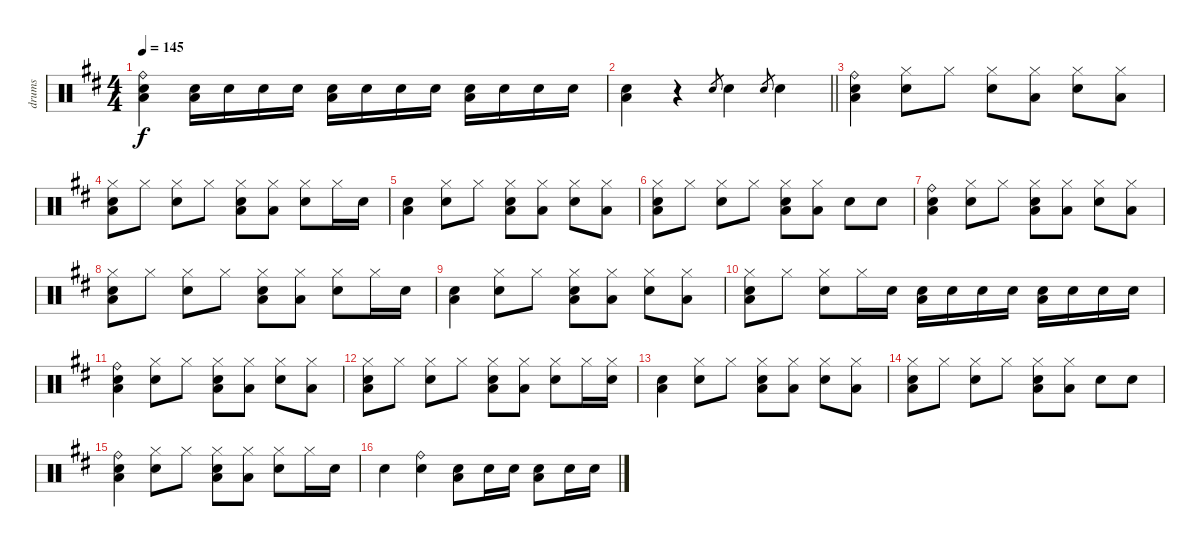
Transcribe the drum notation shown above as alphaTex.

\track ("drums" "drums") {instrument percussion}
\staff {score}
\articulation defaults
\ts (4 4)
\tempo 145
\clef neutral
\ks d
("Ride (bell)" "Electric Snare (hit)" "Low Floor Tom (hit)").4{dy f} ("Electric Snare (hit)" "Low Floor Tom (hit)").16 "Electric Snare (hit)".16 "Electric Snare (hit)".16 "Electric Snare (hit)".16 ("Electric Snare (hit)" "Low Floor Tom (hit)").16 "Electric Snare (hit)".16 "Electric Snare (hit)".16 "Electric Snare (hit)".16 ("Electric Snare (hit)" "Low Floor Tom (hit)").16 "Electric Snare (hit)".16 "Electric Snare (hit)".16 "Electric Snare (hit)".16 |
\barLineRight lightlight
("Electric Snare (hit)" "Low Floor Tom (hit)").4 r.4 "Electric Snare (hit)".8{gr} "Electric Snare (hit)".4 "Electric Snare (hit)".8{gr} "Electric Snare (hit)".4 |
("Ride (bell)" "Electric Snare (hit)" "Low Floor Tom (hit)").4 ("Hi-Hat (closed)" "Electric Snare (hit)").8 "Hi-Hat (closed)".8 ("Hi-Hat (closed)" "Electric Snare (hit)").8 ("Hi-Hat (closed)" "Low Floor Tom (hit)").8 ("Hi-Hat (closed)" "Electric Snare (hit)").8 ("Hi-Hat (closed)" "Low Floor Tom (hit)").8 |
("Hi-Hat (closed)" "Electric Snare (hit)" "Low Floor Tom (hit)").8 "Hi-Hat (closed)".8 ("Hi-Hat (closed)" "Electric Snare (hit)").8 "Hi-Hat (closed)".8 ("Hi-Hat (closed)" "Electric Snare (hit)" "Low Floor Tom (hit)").8 ("Hi-Hat (closed)" "Low Floor Tom (hit)").8 ("Hi-Hat (closed)" "Electric Snare (hit)").8 "Hi-Hat (closed)".16 "Electric Snare (hit)".16 |
("Electric Snare (hit)" "Low Floor Tom (hit)").4 ("Hi-Hat (closed)" "Electric Snare (hit)").8 "Hi-Hat (closed)".8 ("Hi-Hat (closed)" "Electric Snare (hit)" "Low Floor Tom (hit)").8 ("Hi-Hat (closed)" "Low Floor Tom (hit)").8 ("Hi-Hat (closed)" "Electric Snare (hit)").8 ("Hi-Hat (closed)" "Low Floor Tom (hit)").8 |
("Hi-Hat (closed)" "Electric Snare (hit)" "Low Floor Tom (hit)").8 "Hi-Hat (closed)".8 ("Hi-Hat (closed)" "Electric Snare (hit)").8 "Hi-Hat (closed)".8 ("Hi-Hat (closed)" "Electric Snare (hit)" "Low Floor Tom (hit)").8 ("Hi-Hat (closed)" "Low Floor Tom (hit)").8 "Electric Snare (hit)".8 "Electric Snare (hit)".8 |
("Ride (bell)" "Electric Snare (hit)" "Low Floor Tom (hit)").4 ("Hi-Hat (closed)" "Electric Snare (hit)").8 "Hi-Hat (closed)".8 ("Hi-Hat (closed)" "Electric Snare (hit)" "Low Floor Tom (hit)").8 ("Hi-Hat (closed)" "Low Floor Tom (hit)").8 ("Hi-Hat (closed)" "Electric Snare (hit)").8 ("Hi-Hat (closed)" "Low Floor Tom (hit)").8 |
("Hi-Hat (closed)" "Electric Snare (hit)" "Low Floor Tom (hit)").8 "Hi-Hat (closed)".8 ("Hi-Hat (closed)" "Electric Snare (hit)").8 "Hi-Hat (closed)".8 ("Hi-Hat (closed)" "Electric Snare (hit)" "Low Floor Tom (hit)").8 ("Hi-Hat (closed)" "Low Floor Tom (hit)").8 ("Hi-Hat (closed)" "Electric Snare (hit)").8 "Hi-Hat (closed)".16 "Electric Snare (hit)".16 |
("Electric Snare (hit)" "Low Floor Tom (hit)").4 ("Hi-Hat (closed)" "Electric Snare (hit)").8 "Hi-Hat (closed)".8 ("Hi-Hat (closed)" "Electric Snare (hit)" "Low Floor Tom (hit)").8 ("Hi-Hat (closed)" "Low Floor Tom (hit)").8 ("Hi-Hat (closed)" "Electric Snare (hit)").8 ("Hi-Hat (closed)" "Low Floor Tom (hit)").8 |
("Hi-Hat (closed)" "Electric Snare (hit)" "Low Floor Tom (hit)").8 "Hi-Hat (closed)".8 ("Hi-Hat (closed)" "Electric Snare (hit)").8 "Hi-Hat (closed)".16 "Electric Snare (hit)".16 ("Electric Snare (hit)" "Low Floor Tom (hit)").16 "Electric Snare (hit)".16 "Electric Snare (hit)".16 "Electric Snare (hit)".16 ("Electric Snare (hit)" "Low Floor Tom (hit)").16 "Electric Snare (hit)".16 "Electric Snare (hit)".16 "Electric Snare (hit)".16 |
("Ride (bell)" "Electric Snare (hit)" "Low Floor Tom (hit)").4 ("Hi-Hat (closed)" "Electric Snare (hit)").8 "Hi-Hat (closed)".8 ("Hi-Hat (closed)" "Electric Snare (hit)" "Low Floor Tom (hit)").8 ("Hi-Hat (closed)" "Low Floor Tom (hit)").8 ("Hi-Hat (closed)" "Electric Snare (hit)").8 ("Hi-Hat (closed)" "Low Floor Tom (hit)").8 |
("Hi-Hat (closed)" "Electric Snare (hit)" "Low Floor Tom (hit)").8 "Hi-Hat (closed)".8 ("Hi-Hat (closed)" "Electric Snare (hit)").8 "Hi-Hat (closed)".8 ("Hi-Hat (closed)" "Electric Snare (hit)" "Low Floor Tom (hit)").8 ("Hi-Hat (closed)" "Low Floor Tom (hit)").8 ("Hi-Hat (closed)" "Electric Snare (hit)").8 "Hi-Hat (closed)".16 ("Hi-Hat (closed)" "Electric Snare (hit)").16 |
("Electric Snare (hit)" "Low Floor Tom (hit)").4 ("Hi-Hat (closed)" "Electric Snare (hit)").8 "Hi-Hat (closed)".8 ("Hi-Hat (closed)" "Electric Snare (hit)" "Low Floor Tom (hit)").8 ("Hi-Hat (closed)" "Low Floor Tom (hit)").8 ("Hi-Hat (closed)" "Electric Snare (hit)").8 ("Hi-Hat (closed)" "Low Floor Tom (hit)").8 |
("Hi-Hat (closed)" "Electric Snare (hit)" "Low Floor Tom (hit)").8 "Hi-Hat (closed)".8 ("Hi-Hat (closed)" "Electric Snare (hit)").8 "Hi-Hat (closed)".8 ("Hi-Hat (closed)" "Electric Snare (hit)" "Low Floor Tom (hit)").8 ("Hi-Hat (closed)" "Low Floor Tom (hit)").8 "Electric Snare (hit)".8 "Electric Snare (hit)".8 |
("Ride (bell)" "Electric Snare (hit)" "Low Floor Tom (hit)").4 ("Hi-Hat (closed)" "Electric Snare (hit)").8 "Hi-Hat (closed)".8 ("Hi-Hat (closed)" "Electric Snare (hit)" "Low Floor Tom (hit)").8 ("Hi-Hat (closed)" "Low Floor Tom (hit)").8 ("Hi-Hat (closed)" "Electric Snare (hit)").8 "Hi-Hat (closed)".16 "Electric Snare (hit)".16 |
"Electric Snare (hit)".4 ("Ride (bell)" "Electric Snare (hit)").4 ("Electric Snare (hit)" "Low Floor Tom (hit)").8 "Electric Snare (hit)".16 "Electric Snare (hit)".16 ("Electric Snare (hit)" "Low Floor Tom (hit)").8 "Electric Snare (hit)".16 "Electric Snare (hit)".16
